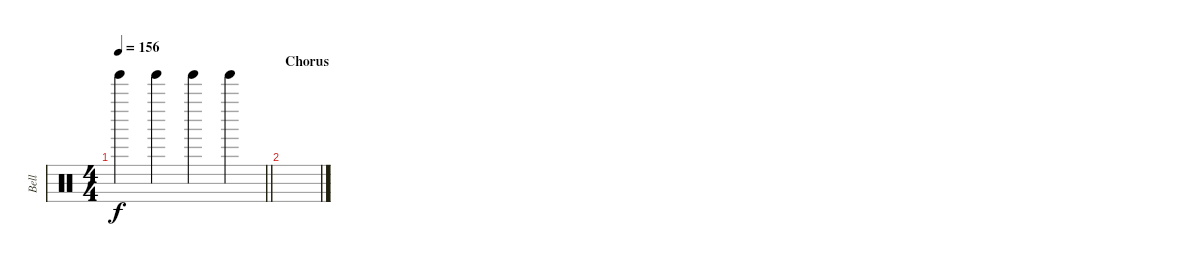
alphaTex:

\track ("Bell" "Bell") {instrument percussion}
\staff {score}
\articulation defaults
\ts (4 4)
\tempo 156
\clef neutral
\barLineRight lightlight
\ks c "Tinkle Bell (hit)".4{dy f} "Tinkle Bell (hit)".4 "Tinkle Bell (hit)".4 "Tinkle Bell (hit)".4
|
\section ("" "Chorus")
